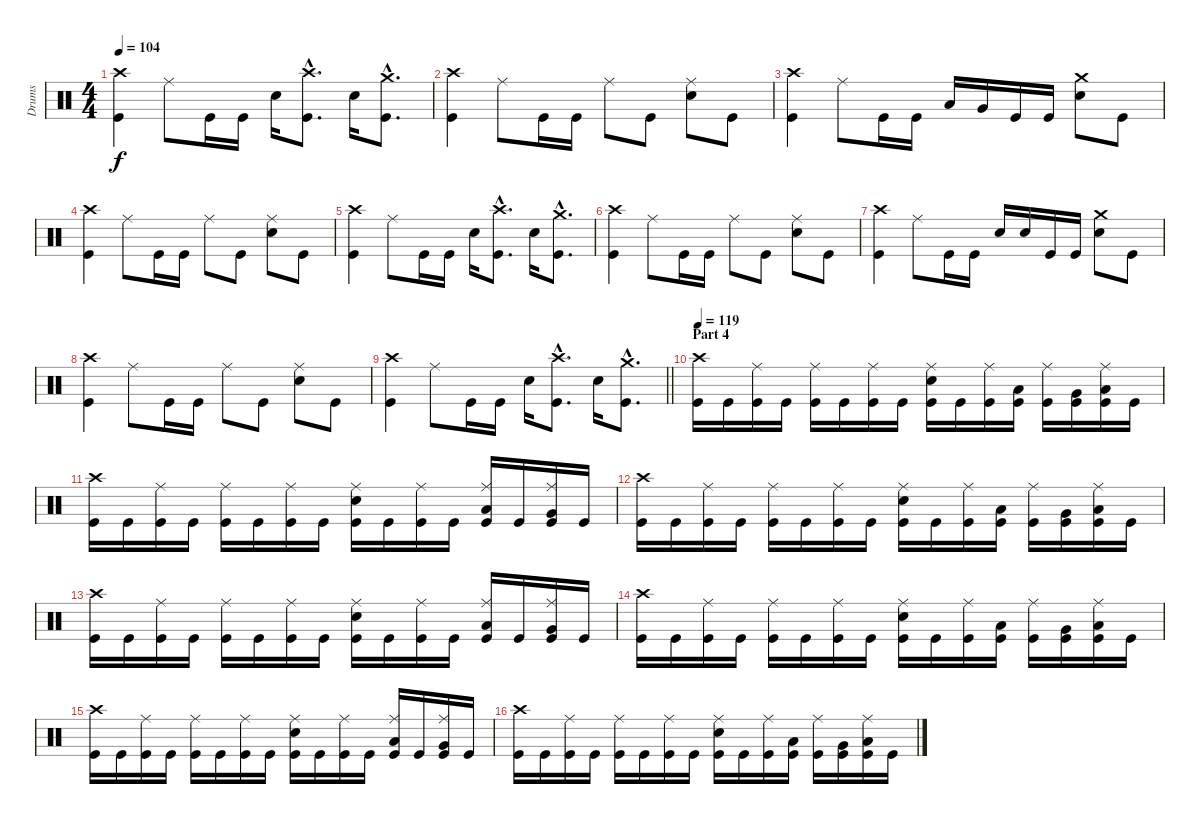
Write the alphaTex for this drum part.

\track ("Drums" "Drums") {instrument percussion}
\staff {score}
\articulation defaults
\ts (4 4)
\tempo 104
\clef neutral
\ks c
("Crash high (hit)" "Kick (hit)").4{dy f} "Ride (middle)".8 "Kick (hit)".16 "Kick (hit)".16 "Snare (hit) 2".16 ("Crash high (hit)"{hac} "Kick (hit)"{hac}).8{d} "Snare (hit) 2".16 ("Crash medium (hit)"{hac} "Kick (hit)"{hac}).8{d} |
("Crash high (hit)" "Kick (hit)").4 "Ride (middle)".8 "Kick (hit)".16 "Kick (hit)".16 "Ride (middle)".8 "Kick (hit)".8 ("Ride (middle)" "Snare (hit) 2").8 "Kick (hit)".8 |
("Crash high (hit)" "Kick (hit)").4 "Ride (middle)".8 "Kick (hit)".16 "Kick (hit)".16 "Low Tom (hit)".16 "Very Low Tom (hit)".16 "Kick (hit)".16 "Kick (hit)".16 ("Crash medium (hit)" "Snare (hit) 2").8 "Kick (hit)".8 |
("Crash high (hit)" "Kick (hit)").4 "Ride (middle)".8 "Kick (hit)".16 "Kick (hit)".16 "Ride (middle)".8 "Kick (hit)".8 ("Ride (middle)" "Snare (hit) 2").8 "Kick (hit)".8 |
("Crash high (hit)" "Kick (hit)").4 "Ride (middle)".8 "Kick (hit)".16 "Kick (hit)".16 "Snare (hit) 2".16 ("Crash high (hit)"{hac} "Kick (hit)"{hac}).8{d} "Snare (hit) 2".16 ("Crash medium (hit)"{hac} "Kick (hit)"{hac}).8{d} |
("Crash high (hit)" "Kick (hit)").4 "Ride (middle)".8 "Kick (hit)".16 "Kick (hit)".16 "Ride (middle)".8 "Kick (hit)".8 ("Ride (middle)" "Snare (hit) 2").8 "Kick (hit)".8 |
("Crash high (hit)" "Kick (hit)").4 "Ride (middle)".8 "Kick (hit)".16 "Kick (hit)".16 "Snare (hit) 2".16 "Snare (hit) 2".16 "Kick (hit)".16 "Kick (hit)".16 ("Crash medium (hit)" "Snare (hit) 2").8 "Kick (hit)".8 |
("Crash high (hit)" "Kick (hit)").4 "Ride (middle)".8 "Kick (hit)".16 "Kick (hit)".16 "Ride (middle)".8 "Kick (hit)".8 ("Ride (middle)" "Snare (hit) 2").8 "Kick (hit)".8 |
\barLineRight lightlight
("Crash high (hit)" "Kick (hit)").4 "Ride (middle)".8 "Kick (hit)".16 "Kick (hit)".16 "Snare (hit) 2".16 ("Crash high (hit)"{hac} "Kick (hit)"{hac}).8{d} "Snare (hit) 2".16 ("Crash medium (hit)"{hac} "Kick (hit)"{hac}).8{d} |
\section ("" "Part 4")
\tempo 119
("Crash high (hit)" "Kick (hit)").16 "Kick (hit)".16 ("Ride (middle)" "Kick (hit)").16 "Kick (hit)".16 ("Ride (middle)" "Kick (hit)").16 "Kick (hit)".16 ("Ride (middle)" "Kick (hit)").16 "Kick (hit)".16 ("Ride (middle)" "Snare (hit) 2" "Kick (hit)").16 "Kick (hit)".16 ("Ride (middle)" "Kick (hit)").16 ("Low Tom (hit)" "Kick (hit)").16 ("Ride (middle)" "Kick (hit)").16 ("Very Low Tom (hit)" "Kick (hit)").16 ("Ride (middle)" "Low Floor Tom (hit)" "Kick (hit)").16 "Kick (hit)".16 |
("Crash high (hit)" "Kick (hit)").16 "Kick (hit)".16 ("Ride (middle)" "Kick (hit)").16 "Kick (hit)".16 ("Ride (middle)" "Kick (hit)").16 "Kick (hit)".16 ("Ride (middle)" "Kick (hit)").16 "Kick (hit)".16 ("Ride (middle)" "Snare (hit) 2" "Kick (hit)").16 "Kick (hit)".16 ("Ride (middle)" "Kick (hit)").16 "Kick (hit)".16 ("Ride (middle)" "Low Tom (hit)" "Kick (hit)").16 "Kick (hit)".16 ("Ride (middle)" "Very Low Tom (hit)" "Kick (hit)").16 "Kick (hit)".16 |
("Crash high (hit)" "Kick (hit)").16 "Kick (hit)".16 ("Ride (middle)" "Kick (hit)").16 "Kick (hit)".16 ("Ride (middle)" "Kick (hit)").16 "Kick (hit)".16 ("Ride (middle)" "Kick (hit)").16 "Kick (hit)".16 ("Ride (middle)" "Snare (hit) 2" "Kick (hit)").16 "Kick (hit)".16 ("Ride (middle)" "Kick (hit)").16 ("Low Tom (hit)" "Kick (hit)").16 ("Ride (middle)" "Kick (hit)").16 ("Very Low Tom (hit)" "Kick (hit)").16 ("Ride (middle)" "Low Floor Tom (hit)" "Kick (hit)").16 "Kick (hit)".16 |
("Crash high (hit)" "Kick (hit)").16 "Kick (hit)".16 ("Ride (middle)" "Kick (hit)").16 "Kick (hit)".16 ("Ride (middle)" "Kick (hit)").16 "Kick (hit)".16 ("Ride (middle)" "Kick (hit)").16 "Kick (hit)".16 ("Ride (middle)" "Snare (hit) 2" "Kick (hit)").16 "Kick (hit)".16 ("Ride (middle)" "Kick (hit)").16 "Kick (hit)".16 ("Ride (middle)" "Low Tom (hit)" "Kick (hit)").16 "Kick (hit)".16 ("Ride (middle)" "Very Low Tom (hit)" "Kick (hit)").16 "Kick (hit)".16 |
("Crash high (hit)" "Kick (hit)").16 "Kick (hit)".16 ("Ride (middle)" "Kick (hit)").16 "Kick (hit)".16 ("Ride (middle)" "Kick (hit)").16 "Kick (hit)".16 ("Ride (middle)" "Kick (hit)").16 "Kick (hit)".16 ("Ride (middle)" "Snare (hit) 2" "Kick (hit)").16 "Kick (hit)".16 ("Ride (middle)" "Kick (hit)").16 ("Low Tom (hit)" "Kick (hit)").16 ("Ride (middle)" "Kick (hit)").16 ("Very Low Tom (hit)" "Kick (hit)").16 ("Ride (middle)" "Low Floor Tom (hit)" "Kick (hit)").16 "Kick (hit)".16 |
("Crash high (hit)" "Kick (hit)").16 "Kick (hit)".16 ("Ride (middle)" "Kick (hit)").16 "Kick (hit)".16 ("Ride (middle)" "Kick (hit)").16 "Kick (hit)".16 ("Ride (middle)" "Kick (hit)").16 "Kick (hit)".16 ("Ride (middle)" "Snare (hit) 2" "Kick (hit)").16 "Kick (hit)".16 ("Ride (middle)" "Kick (hit)").16 "Kick (hit)".16 ("Ride (middle)" "Low Tom (hit)" "Kick (hit)").16 "Kick (hit)".16 ("Ride (middle)" "Very Low Tom (hit)" "Kick (hit)").16 "Kick (hit)".16 |
("Crash high (hit)" "Kick (hit)").16 "Kick (hit)".16 ("Ride (middle)" "Kick (hit)").16 "Kick (hit)".16 ("Ride (middle)" "Kick (hit)").16 "Kick (hit)".16 ("Ride (middle)" "Kick (hit)").16 "Kick (hit)".16 ("Ride (middle)" "Snare (hit) 2" "Kick (hit)").16 "Kick (hit)".16 ("Ride (middle)" "Kick (hit)").16 ("Low Tom (hit)" "Kick (hit)").16 ("Ride (middle)" "Kick (hit)").16 ("Very Low Tom (hit)" "Kick (hit)").16 ("Ride (middle)" "Low Floor Tom (hit)" "Kick (hit)").16 "Kick (hit)".16
